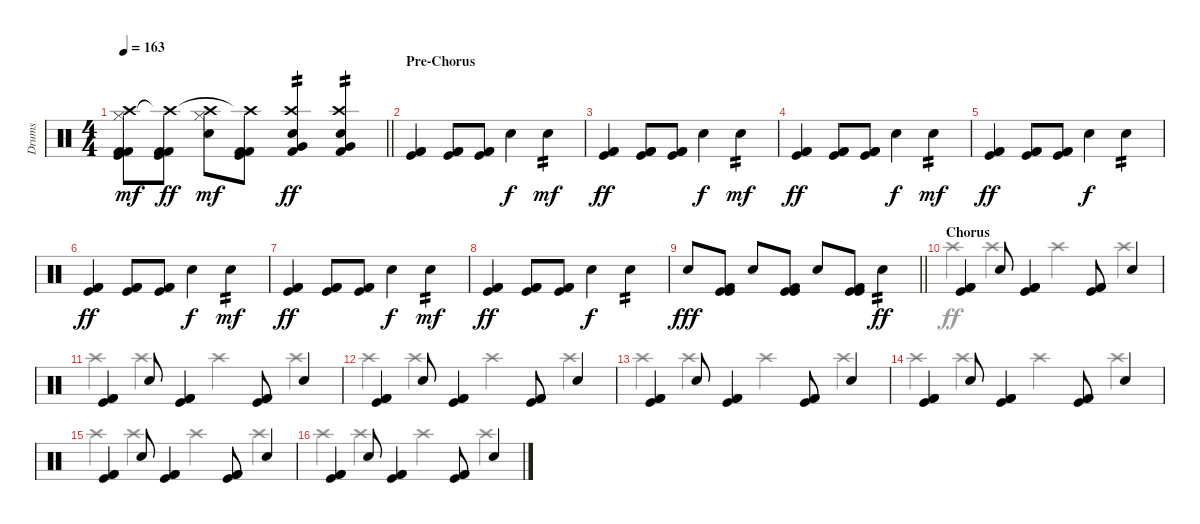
\track ("Drums" "Drums") {instrument percussion}
\staff {score}
\articulation defaults
\voice
\ts (4 4)
\tempo 163
\clef neutral
\barLineRight lightlight
\ks c
("Kick (hit) 2" "Kick (hit) 2" "Kick (hit)" "Hi-Hat (closed)" "Crash high (hit)").8{dy mf} ("Kick (hit) 2" "Kick (hit) 2" "Kick (hit)" "Crash high (hit)"{t}).8{dy ff} ("Electric Snare (hit)" "Hi-Hat (closed)" "Crash high (hit)").8{dy mf} ("Kick (hit) 2" "Kick (hit) 2" "Kick (hit)" "Crash high (hit)"{t}).8 ("Kick (hit) 2" "Electric Snare (hit)" "Very Low Tom (hit)" "Crash high (hit)").4{tp 2 dy ff} ("Kick (hit) 2" "Electric Snare (hit)" "Very Low Tom (hit)" "Crash high (hit)").4{tp 2} |
\section ("" "Pre-Chorus")
("Kick (hit) 2" "Kick (hit) 2" "Kick (hit)").4 ("Kick (hit) 2" "Kick (hit) 2" "Kick (hit)").8 ("Kick (hit) 2" "Kick (hit) 2" "Kick (hit)").8 "Electric Snare (hit)".4{dy f} "Electric Snare (hit)".4{tp 2 dy mf} |
("Kick (hit) 2" "Kick (hit) 2" "Kick (hit)").4{dy ff} ("Kick (hit) 2" "Kick (hit) 2" "Kick (hit)").8 ("Kick (hit) 2" "Kick (hit) 2" "Kick (hit)").8 "Electric Snare (hit)".4{dy f} "Electric Snare (hit)".4{tp 2 dy mf} |
("Kick (hit) 2" "Kick (hit) 2" "Kick (hit)").4{dy ff} ("Kick (hit) 2" "Kick (hit) 2" "Kick (hit)").8 ("Kick (hit) 2" "Kick (hit) 2" "Kick (hit)").8 "Electric Snare (hit)".4{dy f} "Electric Snare (hit)".4{tp 2 dy mf} |
("Kick (hit) 2" "Kick (hit) 2" "Kick (hit)").4{dy ff} ("Kick (hit) 2" "Kick (hit) 2" "Kick (hit)").8 ("Kick (hit) 2" "Kick (hit) 2" "Kick (hit)").8 "Electric Snare (hit)".4{dy f} "Electric Snare (hit)".4{tp 2} |
("Kick (hit) 2" "Kick (hit) 2" "Kick (hit)").4{dy ff} ("Kick (hit) 2" "Kick (hit) 2" "Kick (hit)").8 ("Kick (hit) 2" "Kick (hit) 2" "Kick (hit)").8 "Electric Snare (hit)".4{dy f} "Electric Snare (hit)".4{tp 2 dy mf} |
("Kick (hit) 2" "Kick (hit) 2" "Kick (hit)").4{dy ff} ("Kick (hit) 2" "Kick (hit) 2" "Kick (hit)").8 ("Kick (hit) 2" "Kick (hit) 2" "Kick (hit)").8 "Electric Snare (hit)".4{dy f} "Electric Snare (hit)".4{tp 2 dy mf} |
("Kick (hit) 2" "Kick (hit) 2" "Kick (hit)").4{dy ff} ("Kick (hit) 2" "Kick (hit) 2" "Kick (hit)").8 ("Kick (hit) 2" "Kick (hit) 2" "Kick (hit)").8 "Electric Snare (hit)".4{dy f} "Electric Snare (hit)".4{tp 2} |
\barLineRight lightlight "Electric Snare (hit)".8{dy fff}
("Kick (hit)" "Kick (hit) 2" "Kick (hit)").8 "Electric Snare (hit)".8 ("Kick (hit)" "Kick (hit) 2" "Kick (hit)").8 "Electric Snare (hit)".8 ("Kick (hit)" "Kick (hit) 2" "Kick (hit)").8 "Electric Snare (hit)".4{tp 2 dy ff} |
\section ("" "Chorus")
("Kick (hit) 2" "Kick (hit) 2" "Kick (hit)").4 "Electric Snare (hit)".8 ("Kick (hit) 2" "Kick (hit) 2" "Kick (hit)").4 ("Kick (hit) 2" "Kick (hit) 2" "Kick (hit)").8 "Electric Snare (hit)".4 |
("Kick (hit) 2" "Kick (hit) 2" "Kick (hit)").4 "Electric Snare (hit)".8 ("Kick (hit) 2" "Kick (hit) 2" "Kick (hit)").4 ("Kick (hit) 2" "Kick (hit) 2" "Kick (hit)").8 "Electric Snare (hit)".4 |
("Kick (hit) 2" "Kick (hit) 2" "Kick (hit)").4 "Electric Snare (hit)".8 ("Kick (hit) 2" "Kick (hit) 2" "Kick (hit)").4 ("Kick (hit) 2" "Kick (hit) 2" "Kick (hit)").8 "Electric Snare (hit)".4 |
("Kick (hit) 2" "Kick (hit) 2" "Kick (hit)").4 "Electric Snare (hit)".8 ("Kick (hit) 2" "Kick (hit) 2" "Kick (hit)").4 ("Kick (hit) 2" "Kick (hit) 2" "Kick (hit)").8 "Electric Snare (hit)".4 |
("Kick (hit) 2" "Kick (hit) 2" "Kick (hit)").4 "Electric Snare (hit)".8 ("Kick (hit) 2" "Kick (hit) 2" "Kick (hit)").4 ("Kick (hit) 2" "Kick (hit) 2" "Kick (hit)").8 "Electric Snare (hit)".4 |
("Kick (hit) 2" "Kick (hit) 2" "Kick (hit)").4 "Electric Snare (hit)".8 ("Kick (hit) 2" "Kick (hit) 2" "Kick (hit)").4 ("Kick (hit) 2" "Kick (hit) 2" "Kick (hit)").8 "Electric Snare (hit)".4 |
("Kick (hit) 2" "Kick (hit) 2" "Kick (hit)").4 "Electric Snare (hit)".8 ("Kick (hit) 2" "Kick (hit) 2" "Kick (hit)").4 ("Kick (hit) 2" "Kick (hit) 2" "Kick (hit)").8 "Electric Snare (hit)".4
\voice
\clef neutral
\ottava regular
\simile none
\barLineRight lightlight
\ks c
|
|
|
|
|
|
|
|
\barLineRight lightlight
|
"Crash high (hit)".4 "Crash high (hit)".4 "Crash high (hit)".4 "Crash high (hit)".4 |
"Crash high (hit)".4 "Crash high (hit)".4 "Crash high (hit)".4 "Crash high (hit)".4 |
"Crash high (hit)".4 "Crash high (hit)".4 "Crash high (hit)".4 "Crash high (hit)".4 |
"Crash high (hit)".4 "Crash high (hit)".4 "Crash high (hit)".4 "Crash high (hit)".4 |
"Crash high (hit)".4 "Crash high (hit)".4 "Crash high (hit)".4 "Crash high (hit)".4 |
"Crash high (hit)".4 "Crash high (hit)".4 "Crash high (hit)".4 "Crash high (hit)".4 |
"Crash high (hit)".4 "Crash high (hit)".4 "Crash high (hit)".4 "Crash high (hit)".4
